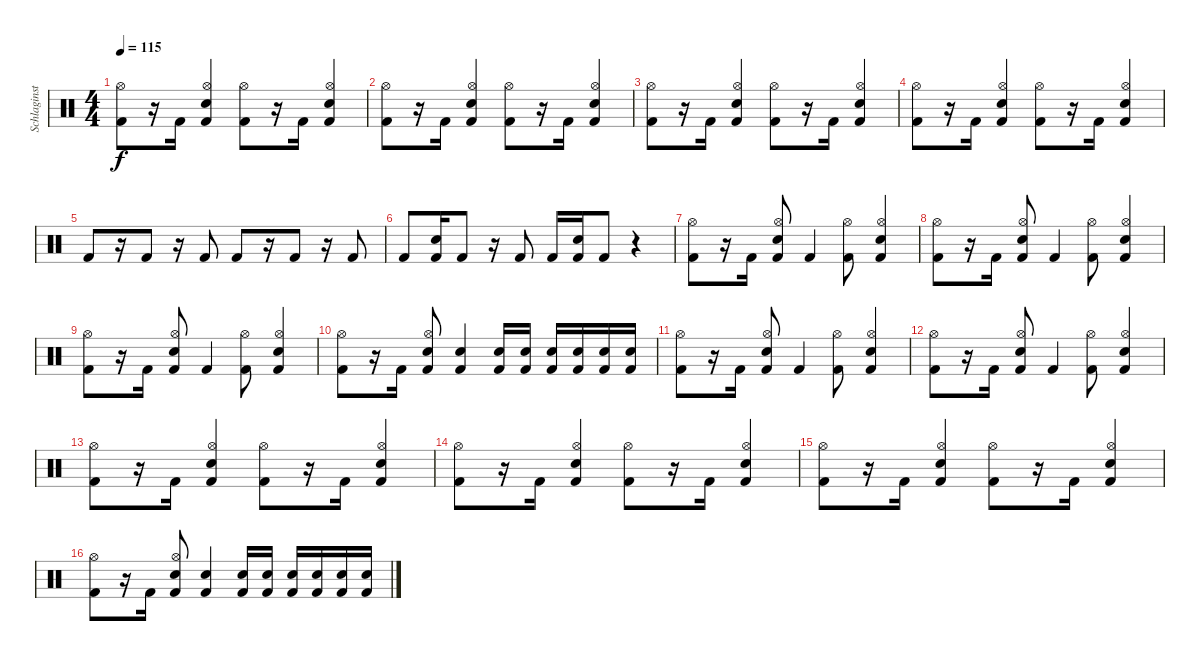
\track ("Schlaginstrumente - Auswahl" "Schlaginst") {instrument percussion}
\staff {score}
\articulation defaults
\ts (4 4)
\tempo 115
\clef neutral
\ks c
("Kick (hit) 2" "Hi-Hat (open)").8{dy f} r.16 "Kick (hit) 2".16 ("Kick (hit) 2" "Snare (hit) 2" "Hi-Hat (open)").4 ("Kick (hit) 2" "Hi-Hat (open)").8 r.16 "Kick (hit) 2".16 ("Kick (hit) 2" "Snare (hit) 2" "Hi-Hat (open)").4 |
("Kick (hit) 2" "Hi-Hat (open)").8 r.16 "Kick (hit) 2".16 ("Kick (hit) 2" "Snare (hit) 2" "Hi-Hat (open)").4 ("Kick (hit) 2" "Hi-Hat (open)").8 r.16 "Kick (hit) 2".16 ("Kick (hit) 2" "Snare (hit) 2" "Hi-Hat (open)").4 |
("Kick (hit) 2" "Hi-Hat (open)").8 r.16 "Kick (hit) 2".16 ("Kick (hit) 2" "Snare (hit) 2" "Hi-Hat (open)").4 ("Kick (hit) 2" "Hi-Hat (open)").8 r.16 "Kick (hit) 2".16 ("Kick (hit) 2" "Snare (hit) 2" "Hi-Hat (open)").4 |
("Kick (hit) 2" "Hi-Hat (open)").8 r.16 "Kick (hit) 2".16 ("Kick (hit) 2" "Snare (hit) 2" "Hi-Hat (open)").4 ("Kick (hit) 2" "Hi-Hat (open)").8 r.16 "Kick (hit) 2".16 ("Kick (hit) 2" "Snare (hit) 2" "Hi-Hat (open)").4 |
"Kick (hit) 2".8 r.16 "Kick (hit) 2".8 r.16 "Kick (hit) 2".8 "Kick (hit) 2".8 r.16 "Kick (hit) 2".8 r.16 "Kick (hit) 2".8 |
"Kick (hit) 2".8 ("Kick (hit) 2" "Snare (hit) 2").16 "Kick (hit) 2".8 r.16 "Kick (hit) 2".8 "Kick (hit) 2".16 ("Kick (hit) 2" "Snare (hit) 2").16 "Kick (hit) 2".8 r.4 |
("Kick (hit) 2" "Hi-Hat (open)").8 r.16 "Kick (hit) 2".16 ("Kick (hit) 2" "Snare (hit) 2" "Hi-Hat (open)").8 "Kick (hit) 2".4 ("Kick (hit) 2" "Hi-Hat (open)").8 ("Kick (hit) 2" "Snare (hit) 2" "Hi-Hat (open)").4 |
("Kick (hit) 2" "Hi-Hat (open)").8 r.16 "Kick (hit) 2".16 ("Kick (hit) 2" "Snare (hit) 2" "Hi-Hat (open)").8 "Kick (hit) 2".4 ("Kick (hit) 2" "Hi-Hat (open)").8 ("Kick (hit) 2" "Snare (hit) 2" "Hi-Hat (open)").4 |
("Kick (hit) 2" "Hi-Hat (open)").8 r.16 "Kick (hit) 2".16 ("Kick (hit) 2" "Snare (hit) 2" "Hi-Hat (open)").8 "Kick (hit) 2".4 ("Kick (hit) 2" "Hi-Hat (open)").8 ("Kick (hit) 2" "Snare (hit) 2" "Hi-Hat (open)").4 |
("Kick (hit) 2" "Hi-Hat (open)").8 r.16 "Kick (hit) 2".16 ("Kick (hit) 2" "Snare (hit) 2" "Hi-Hat (open)").8 ("Kick (hit) 2" "Snare (hit) 2").4 ("Kick (hit) 2" "Snare (hit) 2").16 ("Kick (hit) 2" "Snare (hit) 2").16 ("Kick (hit) 2" "Snare (hit) 2").16 ("Kick (hit) 2" "Snare (hit) 2").16 ("Kick (hit) 2" "Snare (hit) 2").16 ("Kick (hit) 2" "Snare (hit) 2").16 |
("Kick (hit) 2" "Hi-Hat (open)").8 r.16 "Kick (hit) 2".16 ("Kick (hit) 2" "Snare (hit) 2" "Hi-Hat (open)").8 "Kick (hit) 2".4 ("Kick (hit) 2" "Hi-Hat (open)").8 ("Kick (hit) 2" "Snare (hit) 2" "Hi-Hat (open)").4 |
("Kick (hit) 2" "Hi-Hat (open)").8 r.16 "Kick (hit) 2".16 ("Kick (hit) 2" "Snare (hit) 2" "Hi-Hat (open)").8 "Kick (hit) 2".4 ("Kick (hit) 2" "Hi-Hat (open)").8 ("Kick (hit) 2" "Snare (hit) 2" "Hi-Hat (open)").4 |
("Kick (hit) 2" "Hi-Hat (open)").8 r.16 "Kick (hit) 2".16 ("Kick (hit) 2" "Snare (hit) 2" "Hi-Hat (open)").4 ("Kick (hit) 2" "Hi-Hat (open)").8 r.16 "Kick (hit) 2".16 ("Kick (hit) 2" "Snare (hit) 2" "Hi-Hat (open)").4 |
("Kick (hit) 2" "Hi-Hat (open)").8 r.16 "Kick (hit) 2".16 ("Kick (hit) 2" "Snare (hit) 2" "Hi-Hat (open)").4 ("Kick (hit) 2" "Hi-Hat (open)").8 r.16 "Kick (hit) 2".16 ("Kick (hit) 2" "Snare (hit) 2" "Hi-Hat (open)").4 |
("Kick (hit) 2" "Hi-Hat (open)").8 r.16 "Kick (hit) 2".16 ("Kick (hit) 2" "Snare (hit) 2" "Hi-Hat (open)").4 ("Kick (hit) 2" "Hi-Hat (open)").8 r.16 "Kick (hit) 2".16 ("Kick (hit) 2" "Snare (hit) 2" "Hi-Hat (open)").4 |
("Kick (hit) 2" "Hi-Hat (open)").8 r.16 "Kick (hit) 2".16 ("Kick (hit) 2" "Snare (hit) 2" "Hi-Hat (open)").8 ("Kick (hit) 2" "Snare (hit) 2").4 ("Kick (hit) 2" "Snare (hit) 2").16 ("Kick (hit) 2" "Snare (hit) 2").16 ("Kick (hit) 2" "Snare (hit) 2").16 ("Kick (hit) 2" "Snare (hit) 2").16 ("Kick (hit) 2" "Snare (hit) 2").16 ("Kick (hit) 2" "Snare (hit) 2").16
